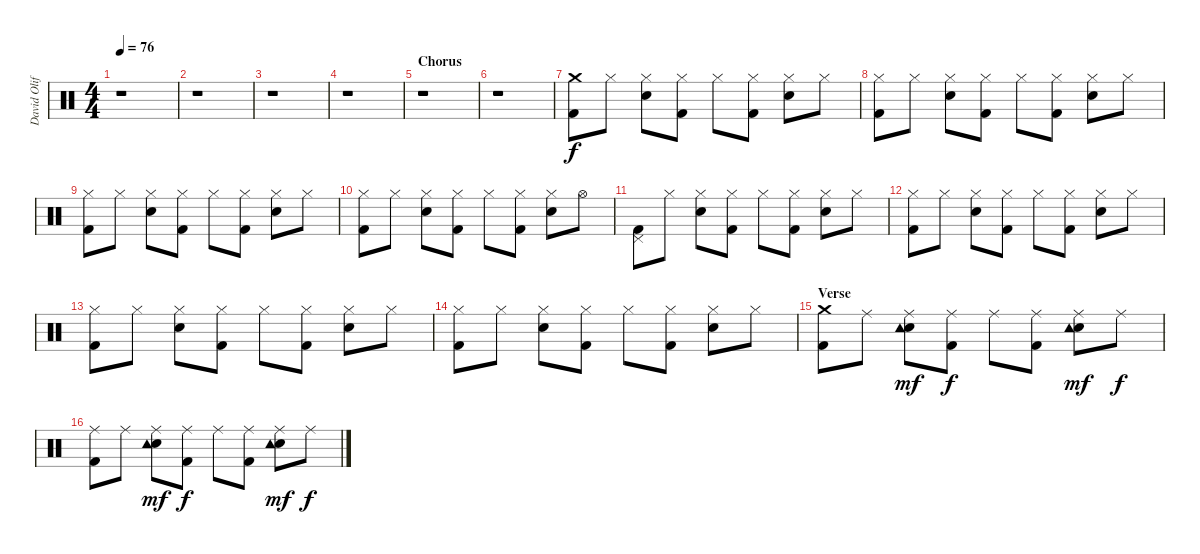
\track ("David Oliffe (Drum)" "David Olif") {instrument percussion}
\staff {score}
\articulation defaults
\ts (4 4)
\tempo 76
\clef neutral
\ks c
r.1{dy f} |
r.1 |
r.1 |
r.1 |
\section ("" "Chorus")
r.1 |
r.1 |
("Crash medium (hit)" "Kick (hit) 2").8 "Hi-Hat (closed)".8 ("Hi-Hat (closed)" "Electric Snare (hit)").8 ("Hi-Hat (closed)" "Kick (hit) 2").8 "Hi-Hat (closed)".8 ("Hi-Hat (closed)" "Kick (hit) 2").8 ("Hi-Hat (closed)" "Electric Snare (hit)").8 "Hi-Hat (closed)".8 |
("Hi-Hat (closed)" "Kick (hit) 2").8 "Hi-Hat (closed)".8 ("Hi-Hat (closed)" "Electric Snare (hit)").8 ("Hi-Hat (closed)" "Kick (hit) 2").8 "Hi-Hat (closed)".8 ("Hi-Hat (closed)" "Kick (hit) 2").8 ("Hi-Hat (closed)" "Electric Snare (hit)").8 "Hi-Hat (closed)".8 |
("Hi-Hat (closed)" "Kick (hit) 2").8 "Hi-Hat (closed)".8 ("Hi-Hat (closed)" "Electric Snare (hit)").8 ("Hi-Hat (closed)" "Kick (hit) 2").8 "Hi-Hat (closed)".8 ("Hi-Hat (closed)" "Kick (hit) 2").8 ("Hi-Hat (closed)" "Electric Snare (hit)").8 "Hi-Hat (closed)".8 |
("Hi-Hat (closed)" "Kick (hit) 2").8 "Hi-Hat (closed)".8 ("Hi-Hat (closed)" "Electric Snare (hit)").8 ("Hi-Hat (closed)" "Kick (hit) 2").8 "Hi-Hat (closed)".8 ("Hi-Hat (closed)" "Kick (hit) 2").8 ("Hi-Hat (closed)" "Electric Snare (hit)").8 "Hi-Hat (open)".8 |
("Pedal Hi-Hat (hit)" "Kick (hit) 2").8 "Hi-Hat (closed)".8 ("Hi-Hat (closed)" "Electric Snare (hit)").8 ("Hi-Hat (closed)" "Kick (hit) 2").8 "Hi-Hat (closed)".8 ("Hi-Hat (closed)" "Kick (hit) 2").8 ("Hi-Hat (closed)" "Electric Snare (hit)").8 "Hi-Hat (closed)".8 |
("Hi-Hat (closed)" "Kick (hit) 2").8 "Hi-Hat (closed)".8 ("Hi-Hat (closed)" "Electric Snare (hit)").8 ("Hi-Hat (closed)" "Kick (hit) 2").8 "Hi-Hat (closed)".8 ("Hi-Hat (closed)" "Kick (hit) 2").8 ("Hi-Hat (closed)" "Electric Snare (hit)").8 "Hi-Hat (closed)".8 |
("Hi-Hat (closed)" "Kick (hit) 2").8 "Hi-Hat (closed)".8 ("Hi-Hat (closed)" "Electric Snare (hit)").8 ("Hi-Hat (closed)" "Kick (hit) 2").8 "Hi-Hat (closed)".8 ("Hi-Hat (closed)" "Kick (hit) 2").8 ("Hi-Hat (closed)" "Electric Snare (hit)").8 "Hi-Hat (closed)".8 |
("Hi-Hat (closed)" "Kick (hit) 2").8 "Hi-Hat (closed)".8 ("Hi-Hat (closed)" "Electric Snare (hit)").8 ("Hi-Hat (closed)" "Kick (hit) 2").8 "Hi-Hat (closed)".8 ("Hi-Hat (closed)" "Kick (hit) 2").8 ("Hi-Hat (closed)" "Electric Snare (hit)").8 "Hi-Hat (closed)".8 |
\section ("" "Verse")
("Crash medium (hit)" "Kick (hit) 2").8 "Ride (middle)".8 ("Ride (middle)" "Electric Snare (hit)" "Tambourine (hit)").8{dy mf} ("Ride (middle)" "Kick (hit) 2").8{dy f} "Ride (middle)".8 ("Ride (middle)" "Kick (hit) 2").8 ("Ride (middle)" "Electric Snare (hit)" "Tambourine (hit)").8{dy mf} "Ride (middle)".8{dy f} |
("Ride (middle)" "Kick (hit) 2").8 "Ride (middle)".8 ("Ride (middle)" "Electric Snare (hit)" "Tambourine (hit)").8{dy mf} ("Ride (middle)" "Kick (hit) 2").8{dy f} "Ride (middle)".8 ("Ride (middle)" "Kick (hit) 2").8 ("Ride (middle)" "Electric Snare (hit)" "Tambourine (hit)").8{dy mf} "Ride (middle)".8{dy f}
